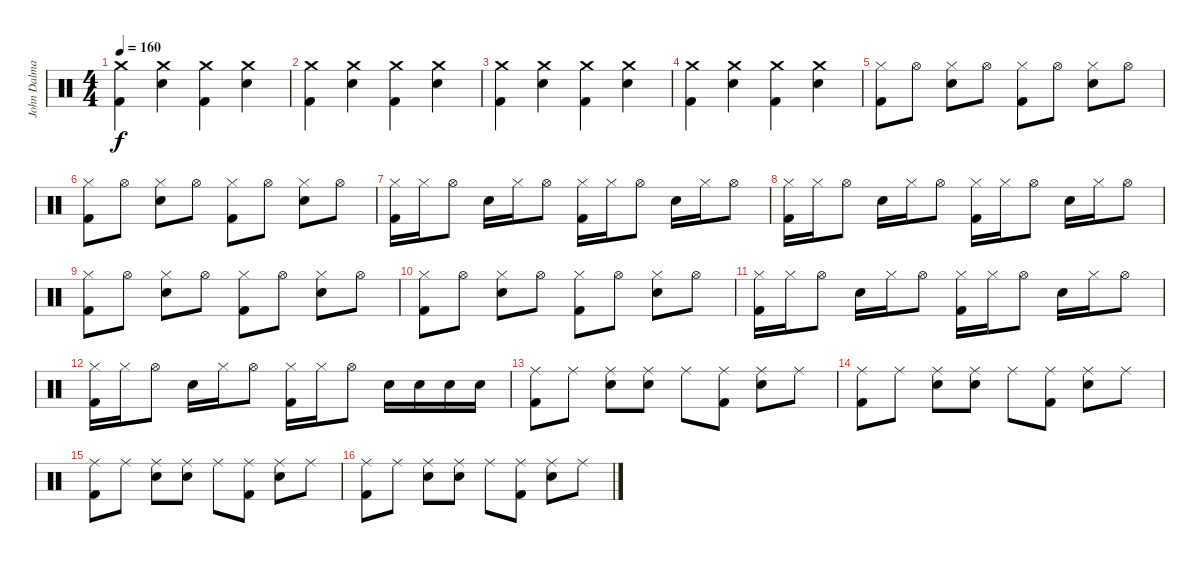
\track ("John Dalmayian - Drums" "John Dalma") {instrument percussion}
\staff {score}
\articulation defaults
\ts (4 4)
\tempo 160
\clef neutral
\ks c
("Crash medium (hit)" "Kick (hit) 2").4{dy f} ("Crash medium (hit)" "Snare (hit) 2").4 ("Crash medium (hit)" "Kick (hit) 2").4 ("Crash medium (hit)" "Snare (hit) 2").4 |
("Crash medium (hit)" "Kick (hit) 2").4 ("Crash medium (hit)" "Snare (hit) 2").4 ("Crash medium (hit)" "Kick (hit) 2").4 ("Crash medium (hit)" "Snare (hit) 2").4 |
("Crash medium (hit)" "Kick (hit) 2").4 ("Crash medium (hit)" "Snare (hit) 2").4 ("Crash medium (hit)" "Kick (hit) 2").4 ("Crash medium (hit)" "Snare (hit) 2").4 |
("Crash medium (hit)" "Kick (hit) 2").4 ("Crash medium (hit)" "Snare (hit) 2").4 ("Crash medium (hit)" "Kick (hit) 2").4 ("Crash medium (hit)" "Snare (hit) 2").4 |
("Hi-Hat (closed)" "Kick (hit) 2").8 "Hi-Hat (open)".8 ("Hi-Hat (closed)" "Snare (hit) 2").8 "Hi-Hat (open)".8 ("Hi-Hat (closed)" "Kick (hit) 2").8 "Hi-Hat (open)".8 ("Hi-Hat (closed)" "Snare (hit) 2").8 "Hi-Hat (open)".8 |
("Hi-Hat (closed)" "Kick (hit) 2").8 "Hi-Hat (open)".8 ("Hi-Hat (closed)" "Snare (hit) 2").8 "Hi-Hat (open)".8 ("Hi-Hat (closed)" "Kick (hit) 2").8 "Hi-Hat (open)".8 ("Hi-Hat (closed)" "Snare (hit) 2").8 "Hi-Hat (open)".8 |
("Hi-Hat (closed)" "Kick (hit) 2").16 "Hi-Hat (closed)".16 "Hi-Hat (open)".8 "Snare (hit) 2".16 "Hi-Hat (closed)".16 "Hi-Hat (open)".8 ("Hi-Hat (closed)" "Kick (hit) 2").16 "Hi-Hat (closed)".16 "Hi-Hat (open)".8 "Snare (hit) 2".16 "Hi-Hat (closed)".16 "Hi-Hat (open)".8 |
("Hi-Hat (closed)" "Kick (hit) 2").16 "Hi-Hat (closed)".16 "Hi-Hat (open)".8 "Snare (hit) 2".16 "Hi-Hat (closed)".16 "Hi-Hat (open)".8 ("Hi-Hat (closed)" "Kick (hit) 2").16 "Hi-Hat (closed)".16 "Hi-Hat (open)".8 "Snare (hit) 2".16 "Hi-Hat (closed)".16 "Hi-Hat (open)".8 |
("Hi-Hat (closed)" "Kick (hit) 2").8 "Hi-Hat (open)".8 ("Hi-Hat (closed)" "Snare (hit) 2").8 "Hi-Hat (open)".8 ("Hi-Hat (closed)" "Kick (hit) 2").8 "Hi-Hat (open)".8 ("Hi-Hat (closed)" "Snare (hit) 2").8 "Hi-Hat (open)".8 |
("Hi-Hat (closed)" "Kick (hit) 2").8 "Hi-Hat (open)".8 ("Hi-Hat (closed)" "Snare (hit) 2").8 "Hi-Hat (open)".8 ("Hi-Hat (closed)" "Kick (hit) 2").8 "Hi-Hat (open)".8 ("Hi-Hat (closed)" "Snare (hit) 2").8 "Hi-Hat (open)".8 |
("Hi-Hat (closed)" "Kick (hit) 2").16 "Hi-Hat (closed)".16 "Hi-Hat (open)".8 "Snare (hit) 2".16 "Hi-Hat (closed)".16 "Hi-Hat (open)".8 ("Hi-Hat (closed)" "Kick (hit) 2").16 "Hi-Hat (closed)".16 "Hi-Hat (open)".8 "Snare (hit) 2".16 "Hi-Hat (closed)".16 "Hi-Hat (open)".8 |
("Hi-Hat (closed)" "Kick (hit) 2").16 "Hi-Hat (closed)".16 "Hi-Hat (open)".8 "Snare (hit) 2".16 "Hi-Hat (closed)".16 "Hi-Hat (open)".8 ("Hi-Hat (closed)" "Kick (hit) 2").16 "Hi-Hat (closed)".16 "Hi-Hat (open)".8 "Snare (hit) 2".16 "Snare (hit) 2".16 "Snare (hit) 2".16 "Snare (hit) 2".16 |
("Ride (middle)" "Kick (hit) 2").8 "Ride (middle)".8 ("Ride (middle)" "Snare (hit) 2").8 ("Ride (middle)" "Snare (hit) 2").8 "Ride (middle)".8 ("Ride (middle)" "Kick (hit) 2").8 ("Ride (middle)" "Snare (hit) 2").8 "Ride (middle)".8 |
("Ride (middle)" "Kick (hit) 2").8 "Ride (middle)".8 ("Ride (middle)" "Snare (hit) 2").8 ("Ride (middle)" "Snare (hit) 2").8 "Ride (middle)".8 ("Ride (middle)" "Kick (hit) 2").8 ("Ride (middle)" "Snare (hit) 2").8 "Ride (middle)".8 |
("Ride (middle)" "Kick (hit) 2").8 "Ride (middle)".8 ("Ride (middle)" "Snare (hit) 2").8 ("Ride (middle)" "Snare (hit) 2").8 "Ride (middle)".8 ("Ride (middle)" "Kick (hit) 2").8 ("Ride (middle)" "Snare (hit) 2").8 "Ride (middle)".8 |
("Ride (middle)" "Kick (hit) 2").8 "Ride (middle)".8 ("Ride (middle)" "Snare (hit) 2").8 ("Ride (middle)" "Snare (hit) 2").8 "Ride (middle)".8 ("Ride (middle)" "Kick (hit) 2").8 ("Ride (middle)" "Snare (hit) 2").8 "Ride (middle)".8
